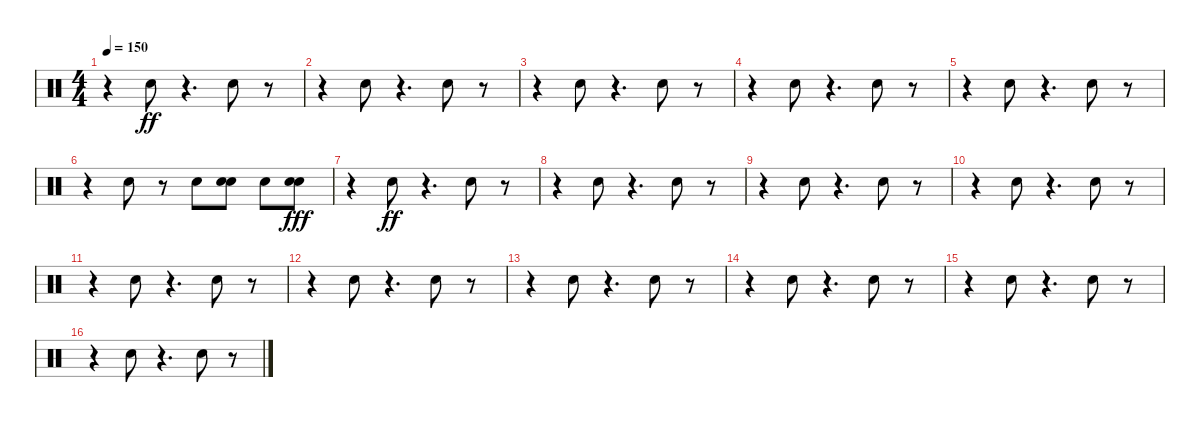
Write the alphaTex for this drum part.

\track "" {instrument percussion}
\staff {score}
\articulation defaults
\ts (4 4)
\tempo 150
\clef neutral
\ks c
r.4{dy ff} "Electric Snare (hit)".8 r.4{d} "Electric Snare (hit)".8 r.8 |
r.4 "Electric Snare (hit)".8 r.4{d} "Electric Snare (hit)".8 r.8 |
r.4 "Electric Snare (hit)".8 r.4{d} "Electric Snare (hit)".8 r.8 |
r.4 "Electric Snare (hit)".8 r.4{d} "Electric Snare (hit)".8 r.8 |
r.4 "Electric Snare (hit)".8 r.4{d} "Electric Snare (hit)".8 r.8 |
r.4 "Electric Snare (hit)".8 r.8 "Electric Snare (hit)".8 ("Electric Snare (hit)" "Electric Snare (hit)").8 "Electric Snare (hit)".8 ("Electric Snare (hit)" "Electric Snare (hit)").8{dy fff} |
r.4 "Electric Snare (hit)".8{dy ff} r.4{d} "Electric Snare (hit)".8 r.8 |
r.4 "Electric Snare (hit)".8 r.4{d} "Electric Snare (hit)".8 r.8 |
r.4 "Electric Snare (hit)".8 r.4{d} "Electric Snare (hit)".8 r.8 |
r.4 "Electric Snare (hit)".8 r.4{d} "Electric Snare (hit)".8 r.8 |
r.4 "Electric Snare (hit)".8 r.4{d} "Electric Snare (hit)".8 r.8 |
r.4 "Electric Snare (hit)".8 r.4{d} "Electric Snare (hit)".8 r.8 |
r.4 "Electric Snare (hit)".8 r.4{d} "Electric Snare (hit)".8 r.8 |
r.4 "Electric Snare (hit)".8 r.4{d} "Electric Snare (hit)".8 r.8 |
r.4 "Electric Snare (hit)".8 r.4{d} "Electric Snare (hit)".8 r.8 |
r.4 "Electric Snare (hit)".8 r.4{d} "Electric Snare (hit)".8 r.8
